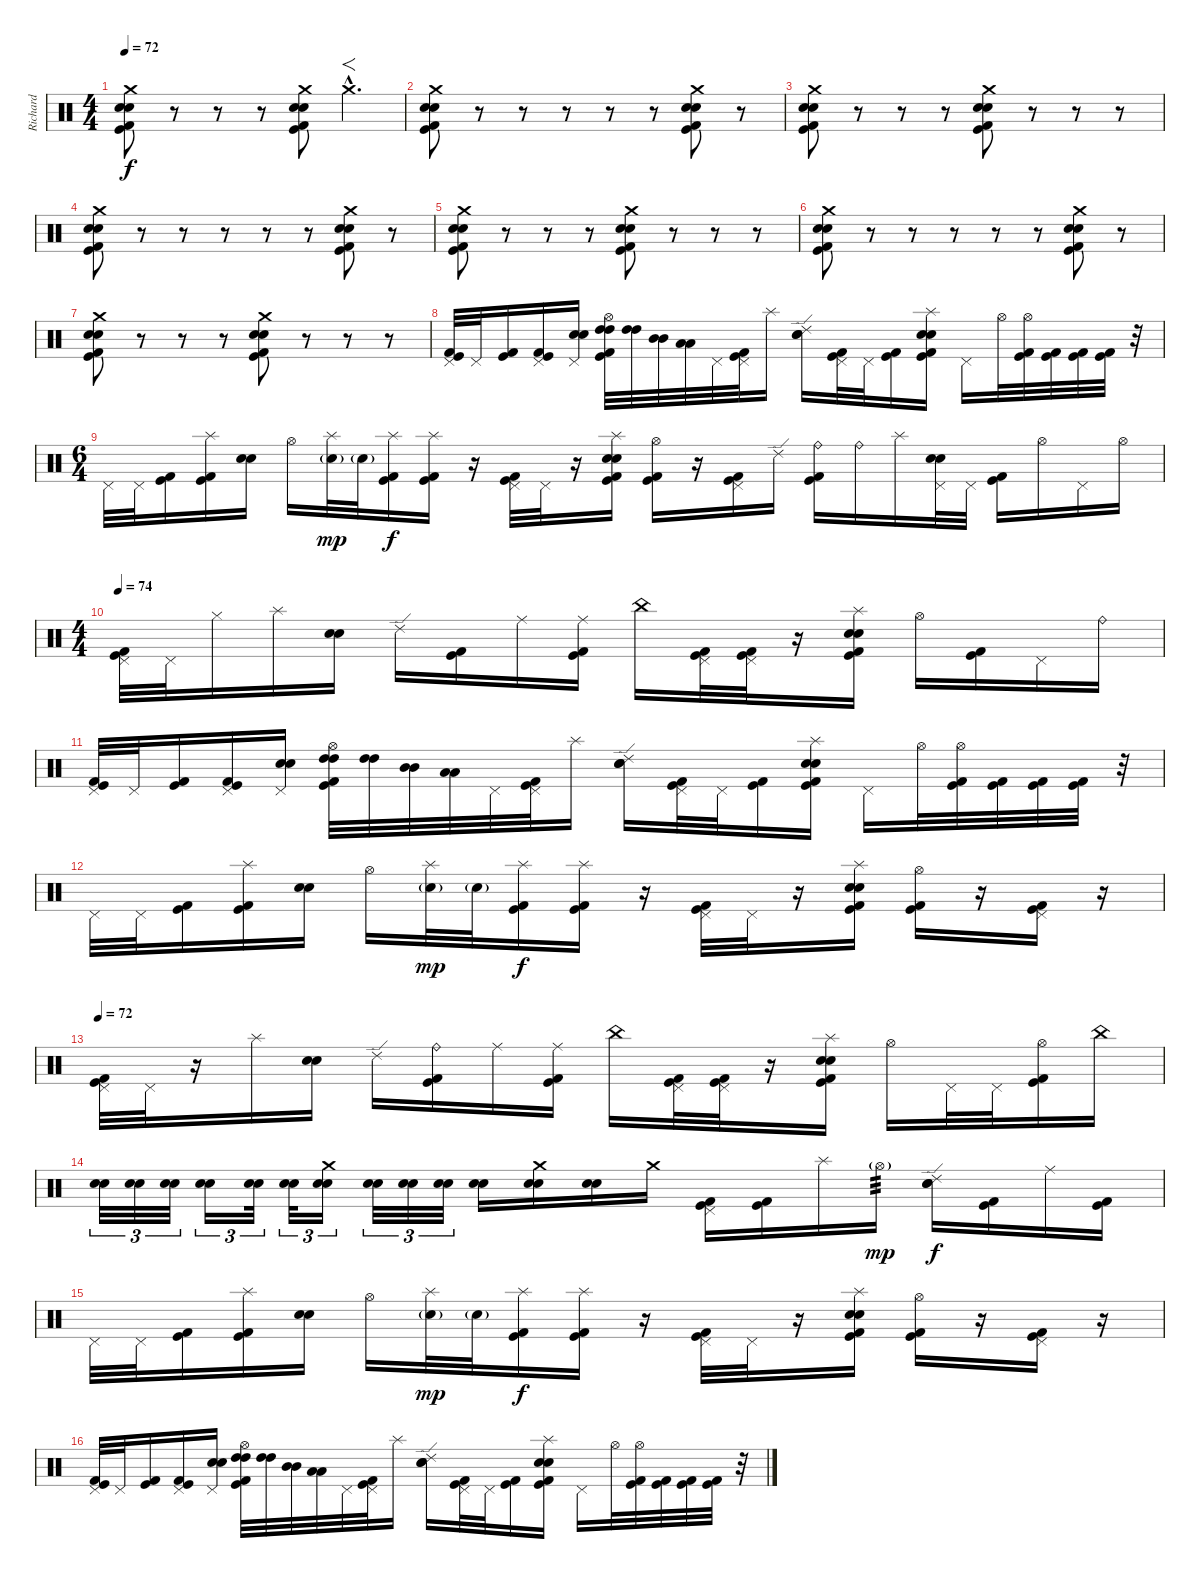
\track ("Richard" "Richard") {instrument percussion}
\staff {score}
\articulation defaults
\ts (4 4)
\tempo 72
\clef neutral
\ks c
("Crash medium (hit)" "Snare (hit) 2" "Electric Snare (hit)" "Kick (hit)" "Kick (hit) 2").8{dy f} r.8 r.8 r.8 ("Crash medium (hit)" "Snare (hit) 2" "Electric Snare (hit)" "Kick (hit)" "Kick (hit) 2").8 "Crash medium (hit)"{hac}.4{f d} |
("Crash medium (hit)" "Snare (hit) 2" "Electric Snare (hit)" "Kick (hit)" "Kick (hit) 2").8 r.8 r.8 r.8 r.8 r.8 ("Crash medium (hit)" "Snare (hit) 2" "Electric Snare (hit)" "Kick (hit) 2" "Kick (hit)").8 r.8 |
("Crash medium (hit)" "Snare (hit) 2" "Electric Snare (hit)" "Kick (hit)" "Kick (hit) 2").8 r.8 r.8 r.8 ("Crash medium (hit)" "Snare (hit) 2" "Electric Snare (hit)" "Kick (hit)" "Kick (hit) 2").8 r.8 r.8 r.8 |
("Crash medium (hit)" "Snare (hit) 2" "Electric Snare (hit)" "Kick (hit)" "Kick (hit) 2").8 r.8 r.8 r.8 r.8 r.8 ("Crash medium (hit)" "Snare (hit) 2" "Electric Snare (hit)" "Kick (hit) 2" "Kick (hit)").8 r.8 |
("Crash medium (hit)" "Snare (hit) 2" "Electric Snare (hit)" "Kick (hit)" "Kick (hit) 2").8 r.8 r.8 r.8 ("Crash medium (hit)" "Snare (hit) 2" "Electric Snare (hit)" "Kick (hit)" "Kick (hit) 2").8 r.8 r.8 r.8 |
("Crash medium (hit)" "Snare (hit) 2" "Electric Snare (hit)" "Kick (hit)" "Kick (hit) 2").8 r.8 r.8 r.8 r.8 r.8 ("Crash medium (hit)" "Snare (hit) 2" "Electric Snare (hit)" "Kick (hit) 2" "Kick (hit)").8 r.8 |
("Crash medium (hit)" "Snare (hit) 2" "Electric Snare (hit)" "Kick (hit)" "Kick (hit) 2").8 r.8 r.8 r.8 ("Crash medium (hit)" "Snare (hit) 2" "Electric Snare (hit)" "Kick (hit)" "Kick (hit) 2").8 r.8 r.8 r.8 |
("Pedal Hi-Hat (hit)" "Kick (hit)" "Kick (hit) 2").32 "Pedal Hi-Hat (hit)".32 ("Kick (hit)" "Kick (hit) 2").16 ("Pedal Hi-Hat (hit)" "Kick (hit)" "Kick (hit) 2").16 ("Pedal Hi-Hat (hit)" "Snare (hit) 2" "Electric Snare (hit)").16 ("Hi-Hat (open)" "High Tom (hit)" "High Tom (hit)" "Kick (hit)" "Kick (hit) 2").32 ("High Tom (hit)" "High Tom (hit)").32 ("Mid Tom (hit)" "Mid Tom (hit)").32 ("Low Tom (hit)" "Low Tom (hit)").32 "Pedal Hi-Hat (hit)".32 ("Pedal Hi-Hat (hit)" "Kick (hit)" "Kick (hit) 2").32 "Splash (hit)".16 ("Ride (edge) 2" "Snare (hit) 2" "Electric Snare (hit)").16 ("Pedal Hi-Hat (hit)" "Kick (hit)" "Kick (hit) 2").32 "Pedal Hi-Hat (hit)".32 ("Kick (hit)" "Kick (hit) 2").16 ("Splash (hit)" "Snare (hit) 2" "Electric Snare (hit)" "Kick (hit)" "Kick (hit) 2").16 "Pedal Hi-Hat (hit)".16 "Hi-Hat (open)".32 ("Hi-Hat (open)" "Kick (hit)" "Kick (hit) 2").32 ("Kick (hit)" "Kick (hit) 2").32 ("Kick (hit)" "Kick (hit) 2").32 ("Kick (hit)" "Kick (hit) 2").32 r.32 |
\ts (6 4)
"Pedal Hi-Hat (hit)".32 "Pedal Hi-Hat (hit)".32 ("Kick (hit)" "Kick (hit) 2").16 ("Splash (hit)" "Kick (hit)" "Kick (hit) 2").16 ("Snare (hit) 2" "Electric Snare (hit)").16 "Hi-Hat (open)".16 ("Splash (hit)" "Snare (hit) 2"{g}).32{dy mp} "Snare (hit) 2"{g}.32 ("Splash (hit)" "Kick (hit)" "Kick (hit) 2").16{dy f} ("Splash (hit)" "Kick (hit)" "Kick (hit) 2").16 r.16 ("Pedal Hi-Hat (hit)" "Kick (hit)" "Kick (hit) 2").32 "Pedal Hi-Hat (hit)".32 r.16 ("Splash (hit)" "Snare (hit) 2" "Electric Snare (hit)" "Kick (hit)" "Kick (hit) 2").16 ("Hi-Hat (open)" "Kick (hit)" "Kick (hit) 2").16 r.16 ("Pedal Hi-Hat (hit)" "Kick (hit)" "Kick (hit) 2").16 "Ride (edge) 2".16 ("Ride (bell)" "Kick (hit)" "Kick (hit) 2").16 "Ride (bell)".16 "Splash (hit)".16 ("Pedal Hi-Hat (hit)" "Snare (hit) 2" "Electric Snare (hit)").32 "Pedal Hi-Hat (hit)".32 ("Kick (hit)" "Kick (hit) 2").16 "Hi-Hat (open)".16 "Pedal Hi-Hat (hit)".16 "Hi-Hat (open)".16 |
\ts (4 4)
\tempo 74
("Pedal Hi-Hat (hit)" "Kick (hit)" "Kick (hit) 2").32 "Pedal Hi-Hat (hit)".32 "Hi-Hat (closed)".16 "Splash (hit)".16 ("Snare (hit) 2" "Electric Snare (hit)").16 "Ride (edge) 2".16 ("Kick (hit)" "Kick (hit) 2").16 "Ride (middle)".16 ("Ride (middle)" "Kick (hit)" "Kick (hit) 2").16 "China (hit)".16 ("Pedal Hi-Hat (hit)" "Kick (hit)" "Kick (hit) 2").32 ("Pedal Hi-Hat (hit)" "Kick (hit)" "Kick (hit) 2").32 r.16 ("Splash (hit)" "Snare (hit) 2" "Electric Snare (hit)" "Kick (hit)" "Kick (hit) 2").16 "Hi-Hat (open)".16 ("Kick (hit)" "Kick (hit) 2").16 "Pedal Hi-Hat (hit)".16 "Ride (bell)".16 |
("Pedal Hi-Hat (hit)" "Kick (hit)" "Kick (hit) 2").32 "Pedal Hi-Hat (hit)".32 ("Kick (hit)" "Kick (hit) 2").16 ("Pedal Hi-Hat (hit)" "Kick (hit)" "Kick (hit) 2").16 ("Pedal Hi-Hat (hit)" "Snare (hit) 2" "Electric Snare (hit)").16 ("Hi-Hat (open)" "High Tom (hit)" "High Tom (hit)" "Kick (hit)" "Kick (hit) 2").32 ("High Tom (hit)" "High Tom (hit)").32 ("Mid Tom (hit)" "Mid Tom (hit)").32 ("Low Tom (hit)" "Low Tom (hit)").32 "Pedal Hi-Hat (hit)".32 ("Pedal Hi-Hat (hit)" "Kick (hit)" "Kick (hit) 2").32 "Splash (hit)".16 ("Ride (edge) 2" "Snare (hit) 2" "Electric Snare (hit)").16 ("Pedal Hi-Hat (hit)" "Kick (hit)" "Kick (hit) 2").32 "Pedal Hi-Hat (hit)".32 ("Kick (hit)" "Kick (hit) 2").16 ("Splash (hit)" "Snare (hit) 2" "Electric Snare (hit)" "Kick (hit)" "Kick (hit) 2").16 "Pedal Hi-Hat (hit)".16 "Hi-Hat (open)".32 ("Hi-Hat (open)" "Kick (hit)" "Kick (hit) 2").32 ("Kick (hit)" "Kick (hit) 2").32 ("Kick (hit)" "Kick (hit) 2").32 ("Kick (hit)" "Kick (hit) 2").32 r.32 |
"Pedal Hi-Hat (hit)".32 "Pedal Hi-Hat (hit)".32 ("Kick (hit)" "Kick (hit) 2").16 ("Splash (hit)" "Kick (hit)" "Kick (hit) 2").16 ("Snare (hit) 2" "Electric Snare (hit)").16 "Hi-Hat (open)".16 ("Splash (hit)" "Snare (hit) 2"{g}).32{dy mp} "Snare (hit) 2"{g}.32 ("Splash (hit)" "Kick (hit)" "Kick (hit) 2").16{dy f} ("Splash (hit)" "Kick (hit)" "Kick (hit) 2").16 r.16 ("Pedal Hi-Hat (hit)" "Kick (hit)" "Kick (hit) 2").32 "Pedal Hi-Hat (hit)".32 r.16 ("Splash (hit)" "Snare (hit) 2" "Electric Snare (hit)" "Kick (hit)" "Kick (hit) 2").16 ("Hi-Hat (open)" "Kick (hit)" "Kick (hit) 2").16 r.16 ("Pedal Hi-Hat (hit)" "Kick (hit)" "Kick (hit) 2").16 r.16 |
\tempo 72
("Pedal Hi-Hat (hit)" "Kick (hit)" "Kick (hit) 2").32 "Pedal Hi-Hat (hit)".32 r.16 "Splash (hit)".16 ("Snare (hit) 2" "Electric Snare (hit)").16 "Ride (edge) 2".16 ("Ride (bell)" "Kick (hit)" "Kick (hit) 2").16 "Ride (middle)".16 ("Ride (middle)" "Kick (hit)" "Kick (hit) 2").16 "China (hit)".16 ("Pedal Hi-Hat (hit)" "Kick (hit)" "Kick (hit) 2").32 ("Pedal Hi-Hat (hit)" "Kick (hit)" "Kick (hit) 2").32 r.16 ("Splash (hit)" "Snare (hit) 2" "Electric Snare (hit)" "Kick (hit)" "Kick (hit) 2").16 "Hi-Hat (open)".16 "Pedal Hi-Hat (hit)".32 "Pedal Hi-Hat (hit)".32 ("Hi-Hat (open)" "Kick (hit)" "Kick (hit) 2").16 "China (hit)".16 |
("Snare (hit) 2" "Electric Snare (hit)").32{tu (3 2)} ("Snare (hit) 2" "Electric Snare (hit)").32{tu (3 2)} ("Snare (hit) 2" "Electric Snare (hit)").32{tu (3 2)} ("Snare (hit) 2" "Electric Snare (hit)").16{tu (3 2)} ("Snare (hit) 2" "Electric Snare (hit)").32{tu (3 2)} ("Snare (hit) 2" "Electric Snare (hit)").32{tu (3 2)} ("Crash medium (hit)" "Snare (hit) 2" "Electric Snare (hit)").16{tu (3 2)} ("Snare (hit) 2" "Electric Snare (hit)").32{tu (3 2)} ("Snare (hit) 2" "Electric Snare (hit)").32{tu (3 2)} ("Snare (hit) 2" "Electric Snare (hit)").32{tu (3 2)} ("Snare (hit) 2" "Electric Snare (hit)").16 ("Crash medium (hit)" "Snare (hit) 2" "Electric Snare (hit)").16 ("Snare (hit) 2" "Electric Snare (hit)").16 "Crash medium (hit)".16 ("Pedal Hi-Hat (hit)" "Kick (hit)" "Kick (hit) 2").16 ("Kick (hit)" "Kick (hit) 2").16 "Splash (hit)".16 "Hi-Hat (open)"{g}.16{tp 3 dy mp} ("Ride (edge) 2" "Snare (hit) 2" "Electric Snare (hit)").16{dy f} ("Kick (hit) 2" "Kick (hit)").16 "Ride (middle)".16 ("Kick (hit) 2" "Kick (hit)").16 |
"Pedal Hi-Hat (hit)".32 "Pedal Hi-Hat (hit)".32 ("Kick (hit)" "Kick (hit) 2").16 ("Splash (hit)" "Kick (hit)" "Kick (hit) 2").16 ("Snare (hit) 2" "Electric Snare (hit)").16 "Hi-Hat (open)".16 ("Splash (hit)" "Snare (hit) 2"{g}).32{dy mp} "Snare (hit) 2"{g}.32 ("Splash (hit)" "Kick (hit)" "Kick (hit) 2").16{dy f} ("Splash (hit)" "Kick (hit)" "Kick (hit) 2").16 r.16 ("Pedal Hi-Hat (hit)" "Kick (hit)" "Kick (hit) 2").32 "Pedal Hi-Hat (hit)".32 r.16 ("Splash (hit)" "Snare (hit) 2" "Electric Snare (hit)" "Kick (hit)" "Kick (hit) 2").16 ("Hi-Hat (open)" "Kick (hit)" "Kick (hit) 2").16 r.16 ("Pedal Hi-Hat (hit)" "Kick (hit)" "Kick (hit) 2").16 r.16 |
("Pedal Hi-Hat (hit)" "Kick (hit)" "Kick (hit) 2").32 "Pedal Hi-Hat (hit)".32 ("Kick (hit)" "Kick (hit) 2").16 ("Pedal Hi-Hat (hit)" "Kick (hit)" "Kick (hit) 2").16 ("Pedal Hi-Hat (hit)" "Snare (hit) 2" "Electric Snare (hit)").16 ("Hi-Hat (open)" "High Tom (hit)" "High Tom (hit)" "Kick (hit)" "Kick (hit) 2").32 ("High Tom (hit)" "High Tom (hit)").32 ("Mid Tom (hit)" "Mid Tom (hit)").32 ("Low Tom (hit)" "Low Tom (hit)").32 "Pedal Hi-Hat (hit)".32 ("Pedal Hi-Hat (hit)" "Kick (hit)" "Kick (hit) 2").32 "Splash (hit)".16 ("Ride (edge) 2" "Snare (hit) 2" "Electric Snare (hit)").16 ("Pedal Hi-Hat (hit)" "Kick (hit)" "Kick (hit) 2").32 "Pedal Hi-Hat (hit)".32 ("Kick (hit)" "Kick (hit) 2").16 ("Splash (hit)" "Snare (hit) 2" "Electric Snare (hit)" "Kick (hit)" "Kick (hit) 2").16 "Pedal Hi-Hat (hit)".16 "Hi-Hat (open)".32 ("Hi-Hat (open)" "Kick (hit)" "Kick (hit) 2").32 ("Kick (hit)" "Kick (hit) 2").32 ("Kick (hit)" "Kick (hit) 2").32 ("Kick (hit)" "Kick (hit) 2").32 r.32
